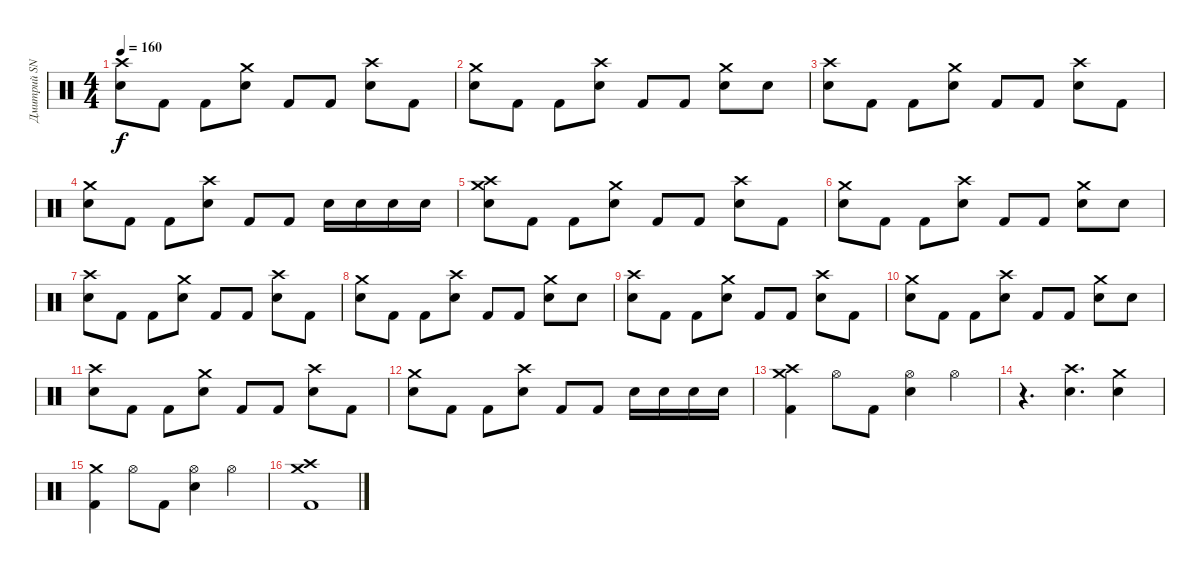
\track ("Дмитрий SNAKE Хакимов" "Дмитрий SN") {instrument percussion}
\staff {score}
\articulation defaults
\ts (4 4)
\tempo 160
\clef neutral
\ks c
("Crash high (hit)" "Snare (hit) 2").8{dy f} "Kick (hit) 2".8 "Kick (hit) 2".8 ("Crash medium (hit)" "Snare (hit) 2").8 "Kick (hit) 2".8 "Kick (hit) 2".8 ("Crash high (hit)" "Snare (hit) 2").8 "Kick (hit) 2".8 |
("Crash medium (hit)" "Snare (hit) 2").8 "Kick (hit) 2".8 "Kick (hit) 2".8 ("Crash high (hit)" "Snare (hit) 2").8 "Kick (hit) 2".8 "Kick (hit) 2".8 ("Crash medium (hit)" "Snare (hit) 2").8 "Snare (hit) 2".8 |
("Crash high (hit)" "Snare (hit) 2").8 "Kick (hit) 2".8 "Kick (hit) 2".8 ("Crash medium (hit)" "Snare (hit) 2").8 "Kick (hit) 2".8 "Kick (hit) 2".8 ("Crash high (hit)" "Snare (hit) 2").8 "Kick (hit) 2".8 |
("Crash medium (hit)" "Snare (hit) 2").8 "Kick (hit) 2".8 "Kick (hit) 2".8 ("Crash high (hit)" "Snare (hit) 2").8 "Kick (hit) 2".8 "Kick (hit) 2".8 "Snare (hit) 2".16 "Snare (hit) 2".16 "Snare (hit) 2".16 "Snare (hit) 2".16 |
("Crash high (hit)" "Crash medium (hit)" "Snare (hit) 2").8 "Kick (hit) 2".8 "Kick (hit) 2".8 ("Crash medium (hit)" "Snare (hit) 2").8 "Kick (hit) 2".8 "Kick (hit) 2".8 ("Crash high (hit)" "Snare (hit) 2").8 "Kick (hit) 2".8 |
("Crash medium (hit)" "Snare (hit) 2").8 "Kick (hit) 2".8 "Kick (hit) 2".8 ("Crash high (hit)" "Snare (hit) 2").8 "Kick (hit) 2".8 "Kick (hit) 2".8 ("Crash medium (hit)" "Snare (hit) 2").8 "Snare (hit) 2".8 |
("Crash high (hit)" "Snare (hit) 2").8 "Kick (hit) 2".8 "Kick (hit) 2".8 ("Crash medium (hit)" "Snare (hit) 2").8 "Kick (hit) 2".8 "Kick (hit) 2".8 ("Crash high (hit)" "Snare (hit) 2").8 "Kick (hit) 2".8 |
("Crash medium (hit)" "Snare (hit) 2").8 "Kick (hit) 2".8 "Kick (hit) 2".8 ("Crash high (hit)" "Snare (hit) 2").8 "Kick (hit) 2".8 "Kick (hit) 2".8 ("Crash medium (hit)" "Snare (hit) 2").8 "Snare (hit) 2".8 |
("Crash high (hit)" "Snare (hit) 2").8 "Kick (hit) 2".8 "Kick (hit) 2".8 ("Crash medium (hit)" "Snare (hit) 2").8 "Kick (hit) 2".8 "Kick (hit) 2".8 ("Crash high (hit)" "Snare (hit) 2").8 "Kick (hit) 2".8 |
("Crash medium (hit)" "Snare (hit) 2").8 "Kick (hit) 2".8 "Kick (hit) 2".8 ("Crash high (hit)" "Snare (hit) 2").8 "Kick (hit) 2".8 "Kick (hit) 2".8 ("Crash medium (hit)" "Snare (hit) 2").8 "Snare (hit) 2".8 |
("Crash high (hit)" "Snare (hit) 2").8 "Kick (hit) 2".8 "Kick (hit) 2".8 ("Crash medium (hit)" "Snare (hit) 2").8 "Kick (hit) 2".8 "Kick (hit) 2".8 ("Crash high (hit)" "Snare (hit) 2").8 "Kick (hit) 2".8 |
("Crash medium (hit)" "Snare (hit) 2").8 "Kick (hit) 2".8 "Kick (hit) 2".8 ("Crash high (hit)" "Snare (hit) 2").8 "Kick (hit) 2".8 "Kick (hit) 2".8 "Snare (hit) 2".16 "Snare (hit) 2".16 "Snare (hit) 2".16 "Snare (hit) 2".16 |
("Crash high (hit)" "Crash medium (hit)" "Kick (hit) 2").4 "Hi-Hat (open)".8 "Kick (hit) 2".8 ("Hi-Hat (open)" "Snare (hit) 2").4 "Hi-Hat (open)".4 |
r.4{d} ("Crash high (hit)" "Snare (hit) 2").4{d} ("Crash medium (hit)" "Snare (hit) 2").4 |
("Crash medium (hit)" "Kick (hit) 2").4 "Hi-Hat (open)".8 "Kick (hit) 2".8 ("Hi-Hat (open)" "Snare (hit) 2").4 "Hi-Hat (open)".4 |
("Crash high (hit)" "Crash medium (hit)" "Kick (hit) 2").1
